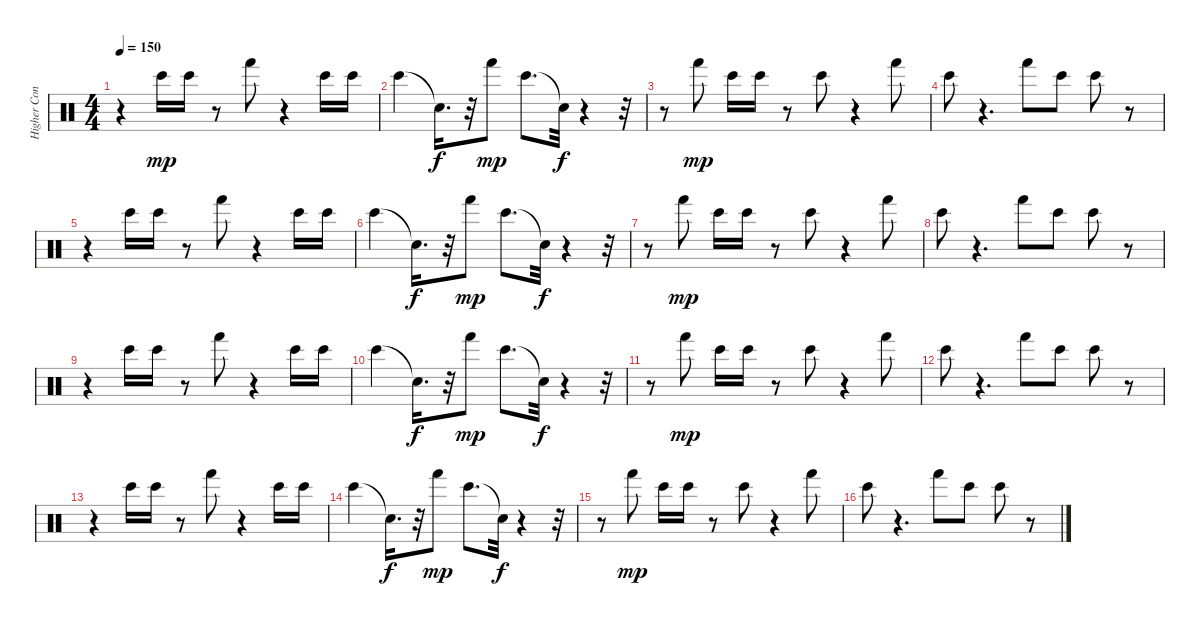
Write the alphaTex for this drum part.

\track ("Higher Conga Drum" "Higher Con") {instrument percussion}
\staff {score}
\articulation defaults
\ts (4 4)
\tempo 150
\clef neutral
\ks c
r.4{dy mp} "Bongo High (hit)".16 "Bongo High (hit)".16 r.8 "Hand (hit)".8 r.4 "Bongo High (hit)".16 "Bongo High (hit)".16 |
"Bongo High (hit)".4 "Snare (hit)"{t}.16{d dy f} r.32 "Hand (hit)".8{dy mp} "Bongo High (hit)".8{d} "Snare (hit)"{t}.32{dy f} r.4 r.32 |
r.8 "Hand (hit)".8{dy mp} "Bongo High (hit)".16 "Bongo High (hit)".16 r.8 "Bongo High (hit)".8 r.4 "Hand (hit)".8 |
"Bongo High (hit)".8 r.4{d} "Hand (hit)".8 "Bongo High (hit)".8 "Bongo High (hit)".8 r.8 |
r.4 "Bongo High (hit)".16 "Bongo High (hit)".16 r.8 "Hand (hit)".8 r.4 "Bongo High (hit)".16 "Bongo High (hit)".16 |
"Bongo High (hit)".4 "Snare (hit)"{t}.16{d dy f} r.32 "Hand (hit)".8{dy mp} "Bongo High (hit)".8{d} "Snare (hit)"{t}.32{dy f} r.4 r.32 |
r.8 "Hand (hit)".8{dy mp} "Bongo High (hit)".16 "Bongo High (hit)".16 r.8 "Bongo High (hit)".8 r.4 "Hand (hit)".8 |
"Bongo High (hit)".8 r.4{d} "Hand (hit)".8 "Bongo High (hit)".8 "Bongo High (hit)".8 r.8 |
r.4 "Bongo High (hit)".16 "Bongo High (hit)".16 r.8 "Hand (hit)".8 r.4 "Bongo High (hit)".16 "Bongo High (hit)".16 |
"Bongo High (hit)".4 "Snare (hit)"{t}.16{d dy f} r.32 "Hand (hit)".8{dy mp} "Bongo High (hit)".8{d} "Snare (hit)"{t}.32{dy f} r.4 r.32 |
r.8 "Hand (hit)".8{dy mp} "Bongo High (hit)".16 "Bongo High (hit)".16 r.8 "Bongo High (hit)".8 r.4 "Hand (hit)".8 |
"Bongo High (hit)".8 r.4{d} "Hand (hit)".8 "Bongo High (hit)".8 "Bongo High (hit)".8 r.8 |
r.4 "Bongo High (hit)".16 "Bongo High (hit)".16 r.8 "Hand (hit)".8 r.4 "Bongo High (hit)".16 "Bongo High (hit)".16 |
"Bongo High (hit)".4 "Snare (hit)"{t}.16{d dy f} r.32 "Hand (hit)".8{dy mp} "Bongo High (hit)".8{d} "Snare (hit)"{t}.32{dy f} r.4 r.32 |
r.8 "Hand (hit)".8{dy mp} "Bongo High (hit)".16 "Bongo High (hit)".16 r.8 "Bongo High (hit)".8 r.4 "Hand (hit)".8 |
"Bongo High (hit)".8 r.4{d} "Hand (hit)".8 "Bongo High (hit)".8 "Bongo High (hit)".8 r.8
